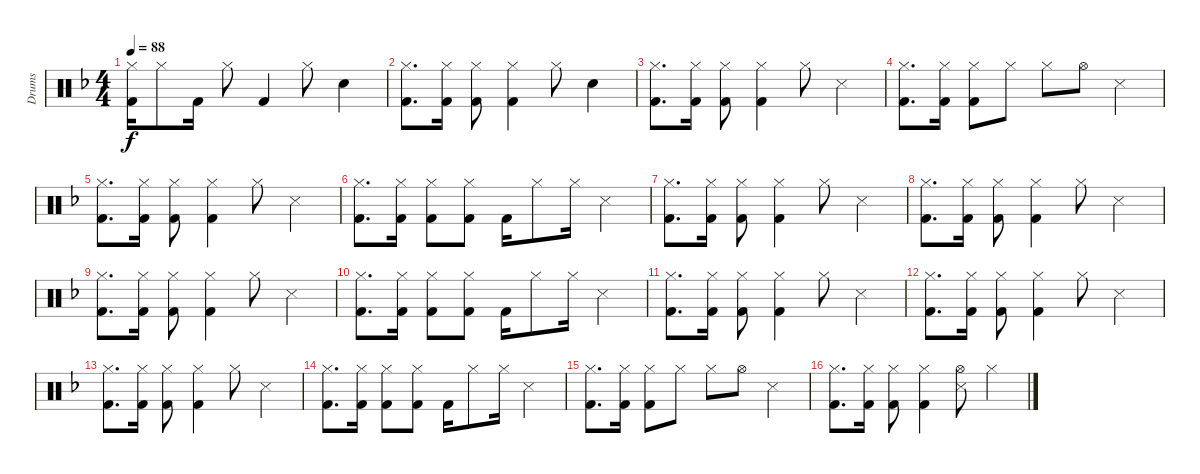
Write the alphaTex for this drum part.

\track ("Drums" "Drums") {instrument percussion}
\staff {score}
\articulation defaults
\ts (4 4)
\tempo 88
\clef neutral
\ks dminor
("Hi-Hat (closed)" "Kick (hit) 2").16{dy f} "Hi-Hat (closed)".8 "Kick (hit) 2".16 "Hi-Hat (closed)".8 "Kick (hit) 2".4 "Hi-Hat (closed)".8 "Snare (hit) 2".4 |
("Hi-Hat (closed)" "Kick (hit) 2").8{d} ("Hi-Hat (closed)" "Kick (hit) 2").16 ("Hi-Hat (closed)" "Kick (hit) 2").8 ("Hi-Hat (closed)" "Kick (hit) 2").4 "Hi-Hat (closed)".8 "Snare (hit) 2".4 |
("Hi-Hat (closed)" "Kick (hit) 2").8{d} ("Hi-Hat (closed)" "Kick (hit) 2").16 ("Hi-Hat (closed)" "Kick (hit) 2").8 ("Hi-Hat (closed)" "Kick (hit) 2").4 "Hi-Hat (closed)".8 "Snare (side stick) 3".4 |
("Hi-Hat (closed)" "Kick (hit) 2").8{d} ("Hi-Hat (closed)" "Kick (hit) 2").16 ("Hi-Hat (closed)" "Kick (hit) 2").8 "Hi-Hat (closed)".8 "Hi-Hat (closed)".8 "Hi-Hat (open)".8 "Snare (side stick) 3".4 |
("Hi-Hat (closed)" "Kick (hit) 2").8{d} ("Hi-Hat (closed)" "Kick (hit) 2").16 ("Hi-Hat (closed)" "Kick (hit) 2").8 ("Hi-Hat (closed)" "Kick (hit) 2").4 "Hi-Hat (closed)".8 "Snare (side stick) 3".4 |
("Hi-Hat (closed)" "Kick (hit) 2").8{d} ("Hi-Hat (closed)" "Kick (hit) 2").16 ("Hi-Hat (closed)" "Kick (hit) 2").8 ("Hi-Hat (closed)" "Kick (hit) 2").8 "Kick (hit) 2".16 "Hi-Hat (closed)".8 "Hi-Hat (closed)".16 "Snare (side stick) 3".4 |
("Hi-Hat (closed)" "Kick (hit) 2").8{d} ("Hi-Hat (closed)" "Kick (hit) 2").16 ("Hi-Hat (closed)" "Kick (hit) 2").8 ("Hi-Hat (closed)" "Kick (hit) 2").4 "Hi-Hat (closed)".8 "Snare (side stick) 3".4 |
("Hi-Hat (closed)" "Kick (hit) 2").8{d} ("Hi-Hat (closed)" "Kick (hit) 2").16 ("Hi-Hat (closed)" "Kick (hit) 2").8 ("Hi-Hat (closed)" "Kick (hit) 2").4 "Hi-Hat (closed)".8 "Snare (side stick) 3".4 |
("Hi-Hat (closed)" "Kick (hit) 2").8{d} ("Hi-Hat (closed)" "Kick (hit) 2").16 ("Hi-Hat (closed)" "Kick (hit) 2").8 ("Hi-Hat (closed)" "Kick (hit) 2").4 "Hi-Hat (closed)".8 "Snare (side stick) 3".4 |
("Hi-Hat (closed)" "Kick (hit) 2").8{d} ("Hi-Hat (closed)" "Kick (hit) 2").16 ("Hi-Hat (closed)" "Kick (hit) 2").8 ("Hi-Hat (closed)" "Kick (hit) 2").8 "Kick (hit) 2".16 "Hi-Hat (closed)".8 "Hi-Hat (closed)".16 "Snare (side stick) 3".4 |
("Hi-Hat (closed)" "Kick (hit) 2").8{d} ("Hi-Hat (closed)" "Kick (hit) 2").16 ("Hi-Hat (closed)" "Kick (hit) 2").8 ("Hi-Hat (closed)" "Kick (hit) 2").4 "Hi-Hat (closed)".8 "Snare (side stick) 3".4 |
("Hi-Hat (closed)" "Kick (hit) 2").8{d} ("Hi-Hat (closed)" "Kick (hit) 2").16 ("Hi-Hat (closed)" "Kick (hit) 2").8 ("Hi-Hat (closed)" "Kick (hit) 2").4 "Hi-Hat (closed)".8 "Snare (side stick) 3".4 |
("Hi-Hat (closed)" "Kick (hit) 2").8{d} ("Hi-Hat (closed)" "Kick (hit) 2").16 ("Hi-Hat (closed)" "Kick (hit) 2").8 ("Hi-Hat (closed)" "Kick (hit) 2").4 "Hi-Hat (closed)".8 "Snare (side stick) 3".4 |
("Hi-Hat (closed)" "Kick (hit) 2").8{d} ("Hi-Hat (closed)" "Kick (hit) 2").16 ("Hi-Hat (closed)" "Kick (hit) 2").8 ("Hi-Hat (closed)" "Kick (hit) 2").8 "Kick (hit) 2".16 "Hi-Hat (closed)".8 "Hi-Hat (closed)".16 "Snare (side stick) 3".4 |
("Hi-Hat (closed)" "Kick (hit) 2").8{d} ("Hi-Hat (closed)" "Kick (hit) 2").16 ("Hi-Hat (closed)" "Kick (hit) 2").8 "Hi-Hat (closed)".8 "Hi-Hat (closed)".8 "Hi-Hat (open)".8 "Snare (side stick) 3".4 |
("Hi-Hat (closed)" "Kick (hit) 2").8{d} ("Hi-Hat (closed)" "Kick (hit) 2").16 ("Hi-Hat (closed)" "Kick (hit) 2").8 ("Hi-Hat (closed)" "Kick (hit) 2").4 ("Hi-Hat (open)" "Snare (side stick) 3").8 "Hi-Hat (closed)".4
